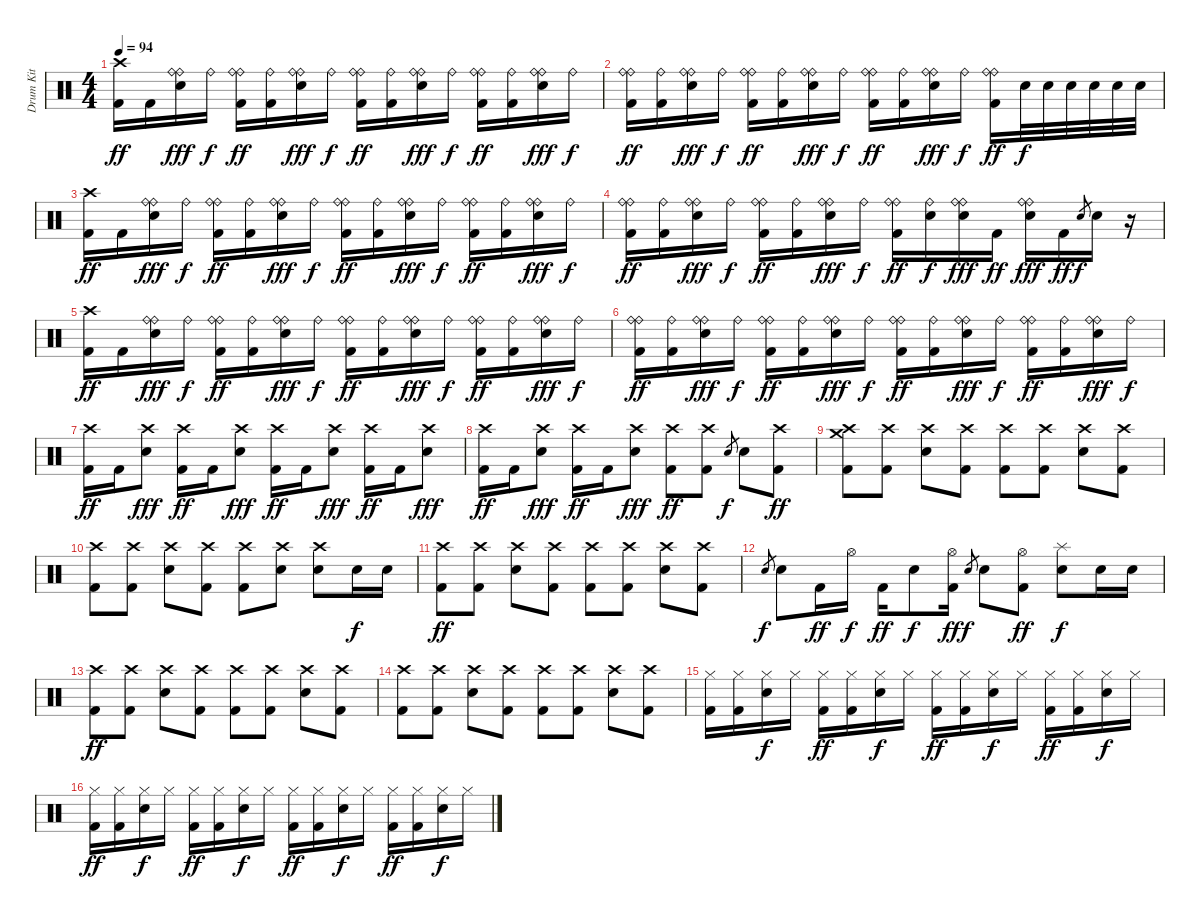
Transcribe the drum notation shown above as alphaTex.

\track ("Drum Kit" "Drum Kit") {instrument percussion}
\staff {score}
\articulation defaults
\ts (4 4)
\tempo 94
\clef neutral
\ks c
("Crash high (hit)" "Kick (hit) 2").16{dy ff} "Kick (hit) 2".16 ("Ride (bell)" "Ride (bell)" "Electric Snare (hit)").16{dy fff} "Ride (bell)".16{dy f} ("Ride (bell)" "Ride (bell)" "Kick (hit) 2").16{dy ff} ("Ride (bell)" "Kick (hit) 2").16 ("Ride (bell)" "Ride (bell)" "Electric Snare (hit)").16{dy fff} "Ride (bell)".16{dy f} ("Ride (bell)" "Ride (bell)" "Kick (hit) 2").16{dy ff} ("Ride (bell)" "Kick (hit) 2").16 ("Ride (bell)" "Ride (bell)" "Electric Snare (hit)").16{dy fff} "Ride (bell)".16{dy f} ("Ride (bell)" "Ride (bell)" "Kick (hit) 2").16{dy ff} ("Ride (bell)" "Kick (hit) 2").16 ("Ride (bell)" "Ride (bell)" "Electric Snare (hit)").16{dy fff} "Ride (bell)".16{dy f} |
("Ride (bell)" "Ride (bell)" "Kick (hit) 2").16{dy ff} ("Ride (bell)" "Kick (hit) 2").16 ("Ride (bell)" "Ride (bell)" "Electric Snare (hit)").16{dy fff} "Ride (bell)".16{dy f} ("Ride (bell)" "Ride (bell)" "Kick (hit) 2").16{dy ff} ("Ride (bell)" "Kick (hit) 2").16 ("Ride (bell)" "Ride (bell)" "Electric Snare (hit)").16{dy fff} "Ride (bell)".16{dy f} ("Ride (bell)" "Ride (bell)" "Kick (hit) 2").16{dy ff} ("Ride (bell)" "Kick (hit) 2").16 ("Ride (bell)" "Ride (bell)" "Electric Snare (hit)").16{dy fff} "Ride (bell)".16{dy f} ("Ride (bell)" "Ride (bell)" "Kick (hit) 2").16{dy ff} "Electric Snare (hit)".32{dy f} "Electric Snare (hit)".32 "Electric Snare (hit)".32 "Electric Snare (hit)".32 "Electric Snare (hit)".32 "Electric Snare (hit)".32 |
("Crash high (hit)" "Kick (hit) 2").16{dy ff} "Kick (hit) 2".16 ("Ride (bell)" "Ride (bell)" "Electric Snare (hit)").16{dy fff} "Ride (bell)".16{dy f} ("Ride (bell)" "Ride (bell)" "Kick (hit) 2").16{dy ff} ("Ride (bell)" "Kick (hit) 2").16 ("Ride (bell)" "Ride (bell)" "Electric Snare (hit)").16{dy fff} "Ride (bell)".16{dy f} ("Ride (bell)" "Ride (bell)" "Kick (hit) 2").16{dy ff} ("Ride (bell)" "Kick (hit) 2").16 ("Ride (bell)" "Ride (bell)" "Electric Snare (hit)").16{dy fff} "Ride (bell)".16{dy f} ("Ride (bell)" "Ride (bell)" "Kick (hit) 2").16{dy ff} ("Ride (bell)" "Kick (hit) 2").16 ("Ride (bell)" "Ride (bell)" "Electric Snare (hit)").16{dy fff} "Ride (bell)".16{dy f} |
("Ride (bell)" "Ride (bell)" "Kick (hit) 2").16{dy ff} ("Ride (bell)" "Kick (hit) 2").16 ("Ride (bell)" "Ride (bell)" "Electric Snare (hit)").16{dy fff} "Ride (bell)".16{dy f} ("Ride (bell)" "Ride (bell)" "Kick (hit) 2").16{dy ff} ("Ride (bell)" "Kick (hit) 2").16 ("Ride (bell)" "Ride (bell)" "Electric Snare (hit)").16{dy fff} "Ride (bell)".16{dy f} ("Ride (bell)" "Ride (bell)" "Kick (hit) 2").16{dy ff} ("Ride (bell)" "Electric Snare (hit)").16{dy f} ("Ride (bell)" "Ride (bell)" "Electric Snare (hit)").16{dy fff} "Kick (hit) 2".16{dy ff} ("Ride (bell)" "Ride (bell)" "Electric Snare (hit)").16{dy fff} "Kick (hit) 2".16{dy ff} "Electric Snare (hit)".8{gr dy f} "Electric Snare (hit)".16 r.16 |
("Crash high (hit)" "Kick (hit) 2").16{dy ff} "Kick (hit) 2".16 ("Ride (bell)" "Ride (bell)" "Electric Snare (hit)").16{dy fff} "Ride (bell)".16{dy f} ("Ride (bell)" "Ride (bell)" "Kick (hit) 2").16{dy ff} ("Ride (bell)" "Kick (hit) 2").16 ("Ride (bell)" "Ride (bell)" "Electric Snare (hit)").16{dy fff} "Ride (bell)".16{dy f} ("Ride (bell)" "Ride (bell)" "Kick (hit) 2").16{dy ff} ("Ride (bell)" "Kick (hit) 2").16 ("Ride (bell)" "Ride (bell)" "Electric Snare (hit)").16{dy fff} "Ride (bell)".16{dy f} ("Ride (bell)" "Ride (bell)" "Kick (hit) 2").16{dy ff} ("Ride (bell)" "Kick (hit) 2").16 ("Ride (bell)" "Ride (bell)" "Electric Snare (hit)").16{dy fff} "Ride (bell)".16{dy f} |
("Ride (bell)" "Ride (bell)" "Kick (hit) 2").16{dy ff} ("Ride (bell)" "Kick (hit) 2").16 ("Ride (bell)" "Ride (bell)" "Electric Snare (hit)").16{dy fff} "Ride (bell)".16{dy f} ("Ride (bell)" "Ride (bell)" "Kick (hit) 2").16{dy ff} ("Ride (bell)" "Kick (hit) 2").16 ("Ride (bell)" "Ride (bell)" "Electric Snare (hit)").16{dy fff} "Ride (bell)".16{dy f} ("Ride (bell)" "Ride (bell)" "Kick (hit) 2").16{dy ff} ("Ride (bell)" "Kick (hit) 2").16 ("Ride (bell)" "Ride (bell)" "Electric Snare (hit)").16{dy fff} "Ride (bell)".16{dy f} ("Ride (bell)" "Ride (bell)" "Kick (hit) 2").16{dy ff} ("Ride (bell)" "Kick (hit) 2").16 ("Ride (bell)" "Ride (bell)" "Electric Snare (hit)").16{dy fff} "Ride (bell)".16{dy f} |
("Crash high (hit)" "Kick (hit) 2").16{dy ff} "Kick (hit) 2".16 ("Crash high (hit)" "Electric Snare (hit)").8{dy fff} ("Crash high (hit)" "Kick (hit) 2").16{dy ff} "Kick (hit) 2".16 ("Crash high (hit)" "Electric Snare (hit)").8{dy fff} ("Crash high (hit)" "Kick (hit) 2").16{dy ff} "Kick (hit) 2".16 ("Crash high (hit)" "Electric Snare (hit)").8{dy fff} ("Crash high (hit)" "Kick (hit) 2").16{dy ff} "Kick (hit) 2".16 ("Crash high (hit)" "Electric Snare (hit)").8{dy fff} |
("Crash high (hit)" "Kick (hit) 2").16{dy ff} "Kick (hit) 2".16 ("Crash high (hit)" "Electric Snare (hit)").8{dy fff} ("Crash high (hit)" "Kick (hit) 2").16{dy ff} "Kick (hit) 2".16 ("Crash high (hit)" "Electric Snare (hit)").8{dy fff} ("Crash high (hit)" "Kick (hit) 2").8{dy ff} ("Crash high (hit)" "Kick (hit) 2").8 "Electric Snare (hit)".8{gr dy f} "Electric Snare (hit)".8 ("Crash high (hit)" "Kick (hit) 2").8{dy ff} |
("Crash high (hit)" "Crash medium (hit)" "Kick (hit) 2").8 ("Crash high (hit)" "Kick (hit) 2").8 ("Crash high (hit)" "Electric Snare (hit)").8 ("Crash high (hit)" "Kick (hit) 2").8 ("Crash high (hit)" "Kick (hit) 2").8 ("Crash high (hit)" "Kick (hit) 2").8 ("Crash high (hit)" "Electric Snare (hit)").8 ("Crash high (hit)" "Kick (hit) 2").8 |
("Crash high (hit)" "Kick (hit) 2").8 ("Crash high (hit)" "Kick (hit) 2").8 ("Crash high (hit)" "Electric Snare (hit)").8 ("Crash high (hit)" "Kick (hit) 2").8 ("Crash high (hit)" "Kick (hit) 2").8 ("Crash high (hit)" "Electric Snare (hit)").8 ("Crash high (hit)" "Electric Snare (hit)").8 "Electric Snare (hit)".16{dy f} "Electric Snare (hit)".16 |
("Crash high (hit)" "Kick (hit) 2").8{dy ff} ("Crash high (hit)" "Kick (hit) 2").8 ("Crash high (hit)" "Electric Snare (hit)").8 ("Crash high (hit)" "Kick (hit) 2").8 ("Crash high (hit)" "Kick (hit) 2").8 ("Crash high (hit)" "Kick (hit) 2").8 ("Crash high (hit)" "Electric Snare (hit)").8 ("Crash high (hit)" "Kick (hit) 2").8 |
"Electric Snare (hit)".8{gr dy f} "Electric Snare (hit)".8 "Kick (hit) 2".16{dy ff} "Hi-Hat (open)".16{dy f} "Kick (hit) 2".16{dy ff} "Electric Snare (hit)".8{dy f} ("Hi-Hat (open)" "Kick (hit) 2").16{dy ff} "Electric Snare (hit)".8{gr dy f} "Electric Snare (hit)".8 ("Hi-Hat (open)" "Kick (hit) 2").8{dy ff} ("Splash (hit)" "Electric Snare (hit)").8{dy f} "Electric Snare (hit)".16 "Electric Snare (hit)".16 |
("Crash high (hit)" "Kick (hit) 2").8{dy ff} ("Crash high (hit)" "Kick (hit) 2").8 ("Crash high (hit)" "Electric Snare (hit)").8 ("Crash high (hit)" "Kick (hit) 2").8 ("Crash high (hit)" "Kick (hit) 2").8 ("Crash high (hit)" "Kick (hit) 2").8 ("Crash high (hit)" "Electric Snare (hit)").8 ("Crash high (hit)" "Kick (hit) 2").8 |
("Crash high (hit)" "Kick (hit) 2").8 ("Crash high (hit)" "Kick (hit) 2").8 ("Crash high (hit)" "Electric Snare (hit)").8 ("Crash high (hit)" "Kick (hit) 2").8 ("Crash high (hit)" "Kick (hit) 2").8 ("Crash high (hit)" "Kick (hit) 2").8 ("Crash high (hit)" "Electric Snare (hit)").8 ("Crash high (hit)" "Kick (hit) 2").8 |
("Hi-Hat (closed)" "Kick (hit) 2").16 ("Hi-Hat (closed)" "Kick (hit) 2").16 ("Hi-Hat (closed)" "Electric Snare (hit)").16{dy f} "Hi-Hat (closed)".16 ("Hi-Hat (closed)" "Kick (hit) 2").16{dy ff} ("Hi-Hat (closed)" "Kick (hit) 2").16 ("Hi-Hat (closed)" "Electric Snare (hit)").16{dy f} "Hi-Hat (closed)".16 ("Hi-Hat (closed)" "Kick (hit) 2").16{dy ff} ("Hi-Hat (closed)" "Kick (hit) 2").16 ("Hi-Hat (closed)" "Electric Snare (hit)").16{dy f} "Hi-Hat (closed)".16 ("Hi-Hat (closed)" "Kick (hit) 2").16{dy ff} ("Hi-Hat (closed)" "Kick (hit) 2").16 ("Hi-Hat (closed)" "Electric Snare (hit)").16{dy f} "Hi-Hat (closed)".16 |
("Hi-Hat (closed)" "Kick (hit) 2").16{dy ff} ("Hi-Hat (closed)" "Kick (hit) 2").16 ("Hi-Hat (closed)" "Electric Snare (hit)").16{dy f} "Hi-Hat (closed)".16 ("Hi-Hat (closed)" "Kick (hit) 2").16{dy ff} ("Hi-Hat (closed)" "Kick (hit) 2").16 ("Hi-Hat (closed)" "Electric Snare (hit)").16{dy f} "Hi-Hat (closed)".16 ("Hi-Hat (closed)" "Kick (hit) 2").16{dy ff} ("Hi-Hat (closed)" "Kick (hit) 2").16 ("Hi-Hat (closed)" "Electric Snare (hit)").16{dy f} "Hi-Hat (closed)".16 ("Hi-Hat (closed)" "Kick (hit) 2").16{dy ff} ("Hi-Hat (closed)" "Kick (hit) 2").16 ("Hi-Hat (closed)" "Electric Snare (hit)").16{dy f} "Hi-Hat (closed)".16
